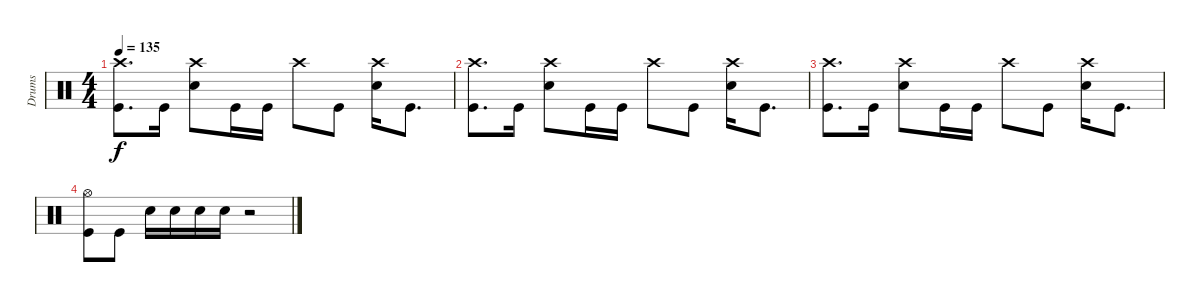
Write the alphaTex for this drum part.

\track ("Drums" "Drums") {instrument percussion}
\staff {score}
\articulation defaults
\ts (4 4)
\tempo 135
\clef neutral
\ks c
("Kick (hit)" "Crash high (hit)").8{d dy f} "Kick (hit)".16 ("Snare (hit) 2" "Crash high (hit)").8 "Kick (hit)".16 "Kick (hit)".16 "Crash high (hit)".8 "Kick (hit)".8 ("Snare (hit) 2" "Crash high (hit)").16 "Kick (hit)".8{d} |
("Kick (hit)" "Crash high (hit)").8{d} "Kick (hit)".16 ("Snare (hit) 2" "Crash high (hit)").8 "Kick (hit)".16 "Kick (hit)".16 "Crash high (hit)".8 "Kick (hit)".8 ("Snare (hit) 2" "Crash high (hit)").16 "Kick (hit)".8{d} |
("Kick (hit)" "Crash high (hit)").8{d} "Kick (hit)".16 ("Snare (hit) 2" "Crash high (hit)").8 "Kick (hit)".16 "Kick (hit)".16 "Crash high (hit)".8 "Kick (hit)".8 ("Snare (hit) 2" "Crash high (hit)").16 "Kick (hit)".8{d} |
("Kick (hit)" "Hi-Hat (open)").8 "Kick (hit)".8 "Snare (hit) 2".16 "Snare (hit) 2".16 "Snare (hit) 2".16 "Snare (hit) 2".16 r.2
